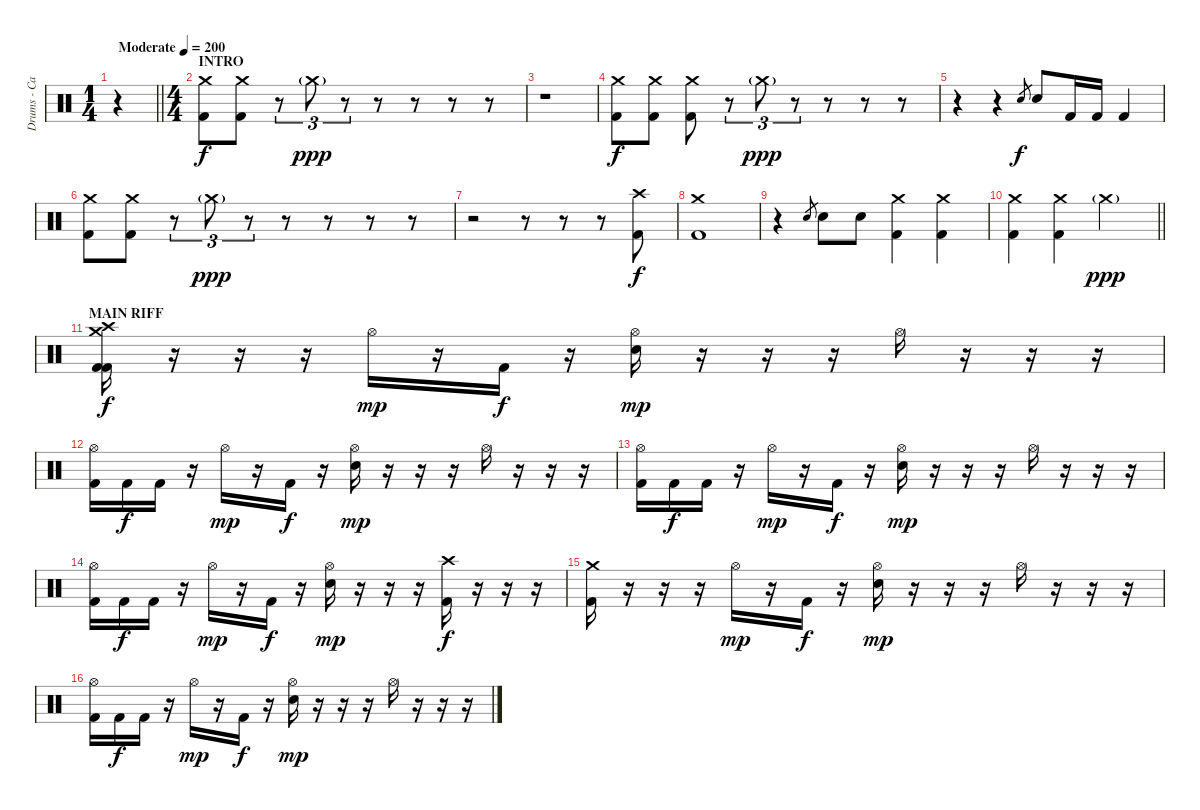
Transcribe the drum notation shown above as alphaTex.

\track ("Drums - Carlos Cruz" "Drums - Ca") {instrument percussion}
\staff {score}
\articulation defaults
\ts (1 4)
\tempo (200 "Moderate")
\clef neutral
\barLineRight lightlight
\ks c
r.4{dy f} |
\ts (4 4)
\section ("" "INTRO")
("Crash medium (hit)" "Kick (hit) 2").8 ("Crash medium (hit)" "Kick (hit) 2").8 r.8{tu (3 2)} "Crash medium (hit)"{g}.8{tu (3 2) dy ppp} r.8{tu (3 2)} r.8 r.8 r.8 r.8 |
r.1 |
("Crash medium (hit)" "Kick (hit) 2").8{dy f} ("Crash medium (hit)" "Kick (hit) 2").8 ("Crash medium (hit)" "Kick (hit) 2").8 r.8{tu (3 2)} "Crash medium (hit)"{g}.8{tu (3 2) dy ppp} r.8{tu (3 2)} r.8 r.8 r.8 |
r.4 r.4 "Snare (hit) 2".8{gr dy f} "Snare (hit) 2".8 "Kick (hit) 2".16 "Kick (hit) 2".16 "Kick (hit) 2".4 |
("Crash medium (hit)" "Kick (hit) 2").8 ("Crash medium (hit)" "Kick (hit) 2").8 r.8{tu (3 2)} "Crash medium (hit)"{g}.8{tu (3 2) dy ppp} r.8{tu (3 2)} r.8 r.8 r.8 r.8 |
r.2 r.8 r.8 r.8 ("Crash high (hit)" "Kick (hit) 2").8{dy f} |
("Crash medium (hit)" "Kick (hit) 2").1 |
r.4 "Snare (hit) 2".8{gr} "Snare (hit) 2".8 "Snare (hit) 2".8 ("Crash medium (hit)" "Kick (hit) 2").4 ("Crash medium (hit)" "Kick (hit) 2").4 |
\barLineRight lightlight
("Crash medium (hit)" "Kick (hit) 2").4 ("Crash medium (hit)" "Kick (hit) 2").4 "Crash medium (hit)"{g}.2{dy ppp} |
\section ("" "MAIN RIFF")
("Crash medium (hit)" "Crash high (hit)" "Kick (hit) 2" "Kick (hit) 2").16{dy f} r.16 r.16 r.16 "Hi-Hat (open)".16{dy mp} r.16 "Kick (hit) 2".16{dy f} r.16 ("Hi-Hat (open)" "Snare (hit) 2").16{dy mp} r.16 r.16 r.16 "Hi-Hat (open)".16 r.16 r.16 r.16 |
("Hi-Hat (open)" "Kick (hit) 2").16 "Kick (hit) 2".16{dy f} "Kick (hit) 2".16 r.16 "Hi-Hat (open)".16{dy mp} r.16 "Kick (hit) 2".16{dy f} r.16 ("Hi-Hat (open)" "Snare (hit) 2").16{dy mp} r.16 r.16 r.16 "Hi-Hat (open)".16 r.16 r.16 r.16 |
("Hi-Hat (open)" "Kick (hit) 2").16 "Kick (hit) 2".16{dy f} "Kick (hit) 2".16 r.16 "Hi-Hat (open)".16{dy mp} r.16 "Kick (hit) 2".16{dy f} r.16 ("Hi-Hat (open)" "Snare (hit) 2").16{dy mp} r.16 r.16 r.16 "Hi-Hat (open)".16 r.16 r.16 r.16 |
("Hi-Hat (open)" "Kick (hit) 2").16 "Kick (hit) 2".16{dy f} "Kick (hit) 2".16 r.16 "Hi-Hat (open)".16{dy mp} r.16 "Kick (hit) 2".16{dy f} r.16 ("Hi-Hat (open)" "Snare (hit) 2").16{dy mp} r.16 r.16 r.16 ("Crash high (hit)" "Kick (hit) 2").16{dy f} r.16 r.16 r.16 |
("Crash medium (hit)" "Kick (hit) 2").16 r.16 r.16 r.16 "Hi-Hat (open)".16{dy mp} r.16 "Kick (hit) 2".16{dy f} r.16 ("Hi-Hat (open)" "Snare (hit) 2").16{dy mp} r.16 r.16 r.16 "Hi-Hat (open)".16 r.16 r.16 r.16 |
("Hi-Hat (open)" "Kick (hit) 2").16 "Kick (hit) 2".16{dy f} "Kick (hit) 2".16 r.16 "Hi-Hat (open)".16{dy mp} r.16 "Kick (hit) 2".16{dy f} r.16 ("Hi-Hat (open)" "Snare (hit) 2").16{dy mp} r.16 r.16 r.16 "Hi-Hat (open)".16 r.16 r.16 r.16
